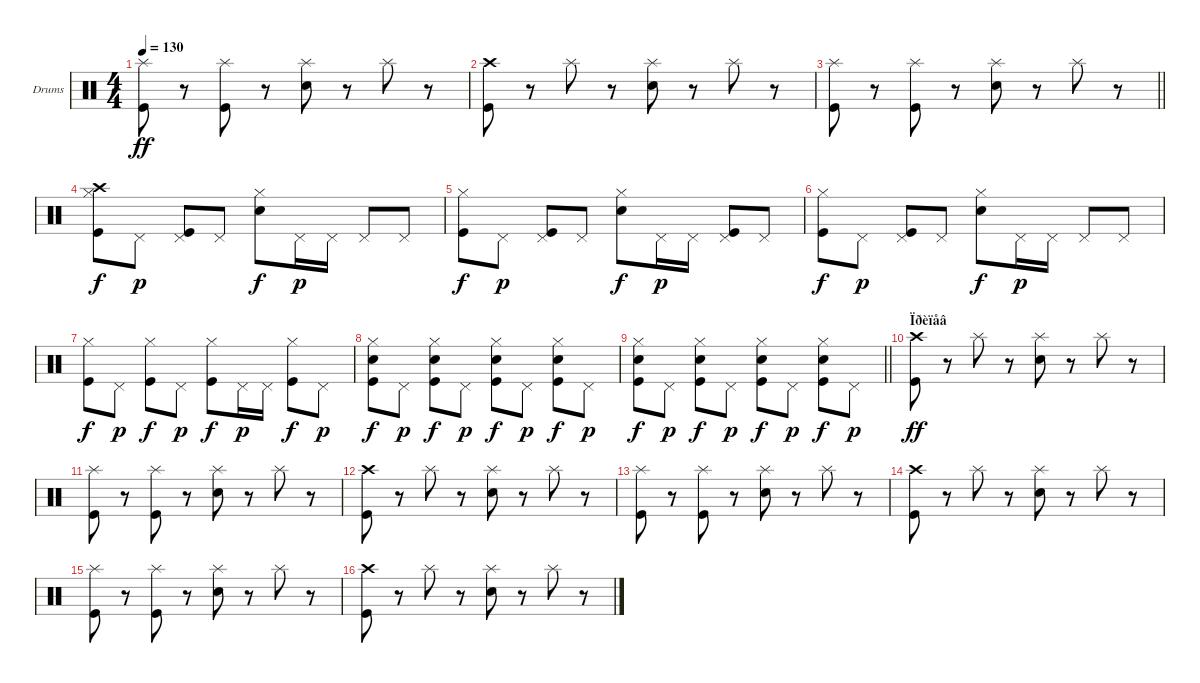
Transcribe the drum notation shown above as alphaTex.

\bracketExtendMode groupsimilarinstruments
\firstSystemTrackNameOrientation horizontal
\otherSystemsTrackNameOrientation horizontal
\track ("Drumkit" "Drums") {instrument percussion}
\staff {score}
\articulation defaults
\ts (4 4)
\tempo 130
\clef neutral
\ks c
("Kick (hit)" "Splash (hit)").8{dy ff} r.8 ("Kick (hit)" "Splash (hit)").8 r.8 ("Snare (hit) 2" "Splash (hit)").8 r.8 "Splash (hit)".8 r.8 |
("Kick (hit)" "Crash high (hit)").8 r.8 "Splash (hit)".8 r.8 ("Snare (hit) 2" "Splash (hit)").8 r.8 "Splash (hit)".8 r.8 |
\barLineRight lightlight
("Kick (hit)" "Splash (hit)").8 r.8 ("Kick (hit)" "Splash (hit)").8 r.8 ("Snare (hit) 2" "Splash (hit)").8 r.8 "Splash (hit)".8 r.8 |
\section ("" "")
("Hi-Hat (closed)" "Kick (hit)" "Crash high (hit)").8{dy f} "Pedal Hi-Hat (hit)".8{dy p} ("Pedal Hi-Hat (hit)" "Kick (hit)").8 "Pedal Hi-Hat (hit)".8 ("Snare (hit) 2" "Hi-Hat (closed)").8{dy f} "Pedal Hi-Hat (hit)".16{dy p} "Pedal Hi-Hat (hit)".16 "Pedal Hi-Hat (hit)".8 "Pedal Hi-Hat (hit)".8 |
("Kick (hit)" "Hi-Hat (closed)").8{dy f} "Pedal Hi-Hat (hit)".8{dy p} ("Pedal Hi-Hat (hit)" "Kick (hit)").8 "Pedal Hi-Hat (hit)".8 ("Snare (hit) 2" "Hi-Hat (closed)").8{dy f} "Pedal Hi-Hat (hit)".16{dy p} "Pedal Hi-Hat (hit)".16 ("Pedal Hi-Hat (hit)" "Kick (hit)").8 "Pedal Hi-Hat (hit)".8 |
("Hi-Hat (closed)" "Kick (hit)").8{dy f} "Pedal Hi-Hat (hit)".8{dy p} ("Pedal Hi-Hat (hit)" "Kick (hit)").8 "Pedal Hi-Hat (hit)".8 ("Snare (hit) 2" "Hi-Hat (closed)").8{dy f} "Pedal Hi-Hat (hit)".16{dy p} "Pedal Hi-Hat (hit)".16 "Pedal Hi-Hat (hit)".8 "Pedal Hi-Hat (hit)".8 |
("Hi-Hat (closed)" "Kick (hit)").8{dy f} "Pedal Hi-Hat (hit)".8{dy p} ("Hi-Hat (closed)" "Kick (hit)").8{dy f} "Pedal Hi-Hat (hit)".8{dy p} ("Hi-Hat (closed)" "Kick (hit)").8{dy f} "Pedal Hi-Hat (hit)".16{dy p} "Pedal Hi-Hat (hit)".16 ("Hi-Hat (closed)" "Kick (hit)").8{dy f} "Pedal Hi-Hat (hit)".8{dy p} |
("Snare (hit) 2" "Hi-Hat (closed)" "Kick (hit)").8{dy f} "Pedal Hi-Hat (hit)".8{dy p} ("Snare (hit) 2" "Hi-Hat (closed)" "Kick (hit)").8{dy f} "Pedal Hi-Hat (hit)".8{dy p} ("Snare (hit) 2" "Hi-Hat (closed)" "Kick (hit)").8{dy f} "Pedal Hi-Hat (hit)".8{dy p} ("Snare (hit) 2" "Hi-Hat (closed)" "Kick (hit)").8{dy f} "Pedal Hi-Hat (hit)".8{dy p} |
\barLineRight lightlight
("Snare (hit) 2" "Hi-Hat (closed)" "Kick (hit)").8{dy f} "Pedal Hi-Hat (hit)".8{dy p} ("Snare (hit) 2" "Hi-Hat (closed)" "Kick (hit)").8{dy f} "Pedal Hi-Hat (hit)".8{dy p} ("Snare (hit) 2" "Hi-Hat (closed)" "Kick (hit)").8{dy f} "Pedal Hi-Hat (hit)".8{dy p} ("Snare (hit) 2" "Hi-Hat (closed)" "Kick (hit)").8{dy f} "Pedal Hi-Hat (hit)".8{dy p} |
\section ("" "Ïðèïåâ")
("Kick (hit)" "Crash high (hit)").8{dy ff} r.8 "Splash (hit)".8 r.8 ("Snare (hit) 2" "Splash (hit)").8 r.8 "Splash (hit)".8 r.8 |
("Kick (hit)" "Splash (hit)").8 r.8 ("Kick (hit)" "Splash (hit)").8 r.8 ("Snare (hit) 2" "Splash (hit)").8 r.8 "Splash (hit)".8 r.8 |
("Kick (hit)" "Crash high (hit)").8 r.8 "Splash (hit)".8 r.8 ("Snare (hit) 2" "Splash (hit)").8 r.8 "Splash (hit)".8 r.8 |
("Kick (hit)" "Splash (hit)").8 r.8 ("Kick (hit)" "Splash (hit)").8 r.8 ("Snare (hit) 2" "Splash (hit)").8 r.8 "Splash (hit)".8 r.8 |
("Kick (hit)" "Crash high (hit)").8 r.8 "Splash (hit)".8 r.8 ("Snare (hit) 2" "Splash (hit)").8 r.8 "Splash (hit)".8 r.8 |
("Kick (hit)" "Splash (hit)").8 r.8 ("Kick (hit)" "Splash (hit)").8 r.8 ("Snare (hit) 2" "Splash (hit)").8 r.8 "Splash (hit)".8 r.8 |
("Kick (hit)" "Crash high (hit)").8 r.8 "Splash (hit)".8 r.8 ("Snare (hit) 2" "Splash (hit)").8 r.8 "Splash (hit)".8 r.8
